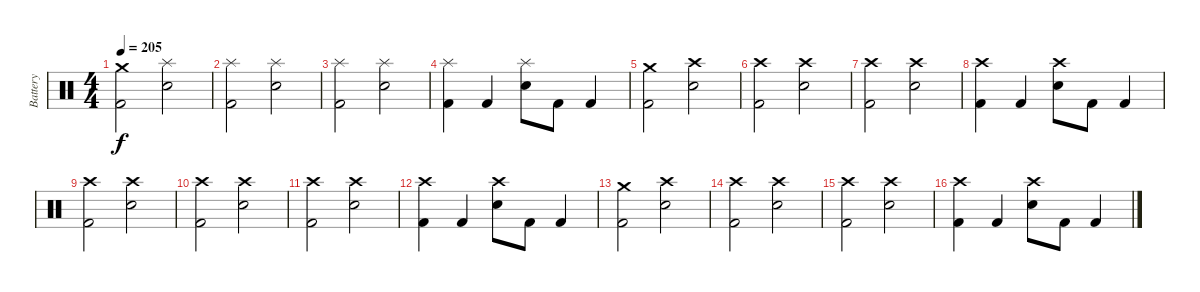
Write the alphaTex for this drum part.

\track ("Battery" "Battery") {instrument percussion}
\staff {score}
\articulation defaults
\ts (4 4)
\tempo 205
\clef neutral
\ks c
("Crash medium (hit)" "Kick (hit) 2").2{dy f} ("Splash (hit)" "Electric Snare (hit)").2 |
("Splash (hit)" "Kick (hit) 2").2 ("Splash (hit)" "Electric Snare (hit)").2 |
("Splash (hit)" "Kick (hit) 2").2 ("Splash (hit)" "Electric Snare (hit)").2 |
("Splash (hit)" "Kick (hit) 2").4 "Kick (hit) 2".4 ("Splash (hit)" "Electric Snare (hit)").8 "Kick (hit) 2".8 "Kick (hit) 2".4 |
("Crash medium (hit)" "Kick (hit) 2").2 ("Crash high (hit)" "Electric Snare (hit)").2 |
("Crash high (hit)" "Kick (hit) 2").2 ("Crash high (hit)" "Electric Snare (hit)").2 |
("Crash high (hit)" "Kick (hit) 2").2 ("Crash high (hit)" "Electric Snare (hit)").2 |
("Crash high (hit)" "Kick (hit) 2").4 "Kick (hit) 2".4 ("Crash high (hit)" "Electric Snare (hit)").8 "Kick (hit) 2".8 "Kick (hit) 2".4 |
("Crash high (hit)" "Kick (hit) 2").2 ("Crash high (hit)" "Electric Snare (hit)").2 |
("Crash high (hit)" "Kick (hit) 2").2 ("Crash high (hit)" "Electric Snare (hit)").2 |
("Crash high (hit)" "Kick (hit) 2").2 ("Crash high (hit)" "Electric Snare (hit)").2 |
("Crash high (hit)" "Kick (hit) 2").4 "Kick (hit) 2".4 ("Crash high (hit)" "Electric Snare (hit)").8 "Kick (hit) 2".8 "Kick (hit) 2".4 |
("Crash medium (hit)" "Kick (hit) 2").2 ("Crash high (hit)" "Electric Snare (hit)").2 |
("Crash high (hit)" "Kick (hit) 2").2 ("Crash high (hit)" "Electric Snare (hit)").2 |
("Crash high (hit)" "Kick (hit) 2").2 ("Crash high (hit)" "Electric Snare (hit)").2 |
("Crash high (hit)" "Kick (hit) 2").4 "Kick (hit) 2".4 ("Crash high (hit)" "Electric Snare (hit)").8 "Kick (hit) 2".8 "Kick (hit) 2".4
